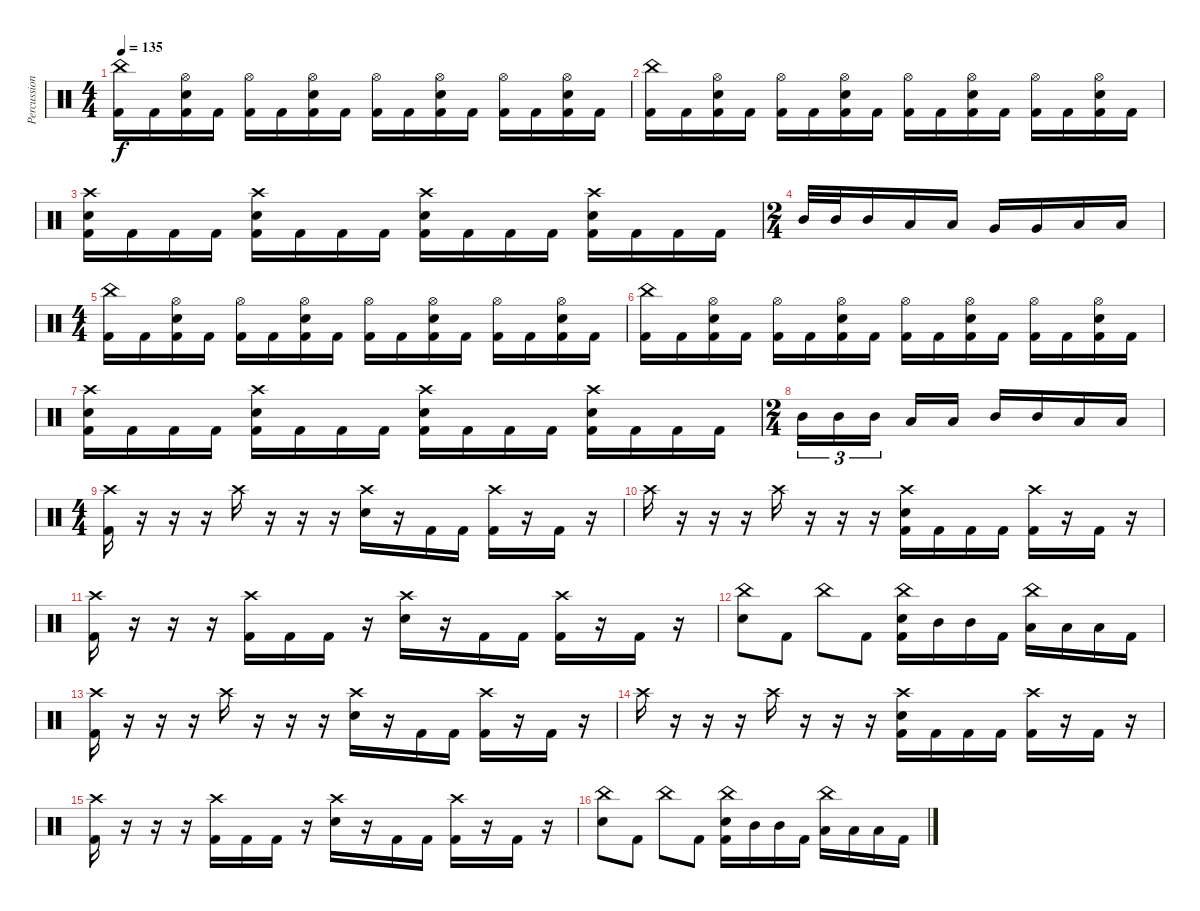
\track ("Percussion" "Percussion") {instrument percussion}
\staff {score}
\articulation defaults
\ts (4 4)
\tempo 135
\clef neutral
\ks c
("China (hit)" "Kick (hit) 2").16{dy f} "Kick (hit) 2".16 ("Hi-Hat (open)" "Electric Snare (hit)" "Kick (hit) 2").16 "Kick (hit) 2".16 ("Hi-Hat (open)" "Kick (hit) 2").16 "Kick (hit) 2".16 ("Hi-Hat (open)" "Electric Snare (hit)" "Kick (hit) 2").16 "Kick (hit) 2".16 ("Hi-Hat (open)" "Kick (hit) 2").16 "Kick (hit) 2".16 ("Hi-Hat (open)" "Electric Snare (hit)" "Kick (hit) 2").16 "Kick (hit) 2".16 ("Hi-Hat (open)" "Kick (hit) 2").16 "Kick (hit) 2".16 ("Hi-Hat (open)" "Electric Snare (hit)" "Kick (hit) 2").16 "Kick (hit) 2".16 |
("China (hit)" "Kick (hit) 2").16 "Kick (hit) 2".16 ("Hi-Hat (open)" "Electric Snare (hit)" "Kick (hit) 2").16 "Kick (hit) 2".16 ("Hi-Hat (open)" "Kick (hit) 2").16 "Kick (hit) 2".16 ("Hi-Hat (open)" "Electric Snare (hit)" "Kick (hit) 2").16 "Kick (hit) 2".16 ("Hi-Hat (open)" "Kick (hit) 2").16 "Kick (hit) 2".16 ("Hi-Hat (open)" "Electric Snare (hit)" "Kick (hit) 2").16 "Kick (hit) 2".16 ("Hi-Hat (open)" "Kick (hit) 2").16 "Kick (hit) 2".16 ("Hi-Hat (open)" "Electric Snare (hit)" "Kick (hit) 2").16 "Kick (hit) 2".16 |
("Crash high (hit)" "Electric Snare (hit)" "Kick (hit) 2").16 "Kick (hit) 2".16 "Kick (hit) 2".16 "Kick (hit) 2".16 ("Crash high (hit)" "Electric Snare (hit)" "Kick (hit) 2").16 "Kick (hit) 2".16 "Kick (hit) 2".16 "Kick (hit) 2".16 ("Crash high (hit)" "Electric Snare (hit)" "Kick (hit) 2").16 "Kick (hit) 2".16 "Kick (hit) 2".16 "Kick (hit) 2".16 ("Crash high (hit)" "Electric Snare (hit)" "Kick (hit) 2").16 "Kick (hit) 2".16 "Kick (hit) 2".16 "Kick (hit) 2".16 |
\ts (2 4)
"Mid Tom (hit)".32 "Mid Tom (hit)".32 "Mid Tom (hit)".16 "Low Tom (hit)".16 "Low Tom (hit)".16 "Very Low Tom (hit)".16 "Very Low Tom (hit)".16 "Low Floor Tom (hit)".16 "Low Floor Tom (hit)".16 |
\ts (4 4)
("China (hit)" "Kick (hit) 2").16 "Kick (hit) 2".16 ("Hi-Hat (open)" "Electric Snare (hit)" "Kick (hit) 2").16 "Kick (hit) 2".16 ("Hi-Hat (open)" "Kick (hit) 2").16 "Kick (hit) 2".16 ("Hi-Hat (open)" "Electric Snare (hit)" "Kick (hit) 2").16 "Kick (hit) 2".16 ("Hi-Hat (open)" "Kick (hit) 2").16 "Kick (hit) 2".16 ("Hi-Hat (open)" "Electric Snare (hit)" "Kick (hit) 2").16 "Kick (hit) 2".16 ("Hi-Hat (open)" "Kick (hit) 2").16 "Kick (hit) 2".16 ("Hi-Hat (open)" "Electric Snare (hit)" "Kick (hit) 2").16 "Kick (hit) 2".16 |
("China (hit)" "Kick (hit) 2").16 "Kick (hit) 2".16 ("Hi-Hat (open)" "Electric Snare (hit)" "Kick (hit) 2").16 "Kick (hit) 2".16 ("Hi-Hat (open)" "Kick (hit) 2").16 "Kick (hit) 2".16 ("Hi-Hat (open)" "Electric Snare (hit)" "Kick (hit) 2").16 "Kick (hit) 2".16 ("Hi-Hat (open)" "Kick (hit) 2").16 "Kick (hit) 2".16 ("Hi-Hat (open)" "Electric Snare (hit)" "Kick (hit) 2").16 "Kick (hit) 2".16 ("Hi-Hat (open)" "Kick (hit) 2").16 "Kick (hit) 2".16 ("Hi-Hat (open)" "Electric Snare (hit)" "Kick (hit) 2").16 "Kick (hit) 2".16 |
("Crash high (hit)" "Electric Snare (hit)" "Kick (hit) 2").16 "Kick (hit) 2".16 "Kick (hit) 2".16 "Kick (hit) 2".16 ("Crash high (hit)" "Electric Snare (hit)" "Kick (hit) 2").16 "Kick (hit) 2".16 "Kick (hit) 2".16 "Kick (hit) 2".16 ("Crash high (hit)" "Electric Snare (hit)" "Kick (hit) 2").16 "Kick (hit) 2".16 "Kick (hit) 2".16 "Kick (hit) 2".16 ("Crash high (hit)" "Electric Snare (hit)" "Kick (hit) 2").16 "Kick (hit) 2".16 "Kick (hit) 2".16 "Kick (hit) 2".16 |
\ts (2 4)
"Mid Tom (hit)".16{tu (3 2)} "Mid Tom (hit)".16{tu (3 2)} "Mid Tom (hit)".16{tu (3 2) beam splitsecondary} "Low Tom (hit)".16 "Low Tom (hit)".16 "Mid Tom (hit)".16 "Mid Tom (hit)".16 "Low Tom (hit)".16 "Low Tom (hit)".16 |
\ts (4 4)
("Crash high (hit)" "Kick (hit) 2").16 r.16 r.16 r.16 "Crash high (hit)".16 r.16 r.16 r.16 ("Crash high (hit)" "Electric Snare (hit)").16 r.16 "Kick (hit) 2".16 "Kick (hit) 2".16 ("Crash high (hit)" "Kick (hit) 2").16 r.16 "Kick (hit) 2".16 r.16 |
"Crash high (hit)".16 r.16 r.16 r.16 "Crash high (hit)".16 r.16 r.16 r.16 ("Crash high (hit)" "Electric Snare (hit)" "Kick (hit) 2").16 "Kick (hit) 2".16 "Kick (hit) 2".16 "Kick (hit) 2".16 ("Crash high (hit)" "Kick (hit) 2").16 r.16 "Kick (hit) 2".16 r.16 |
("Crash high (hit)" "Kick (hit) 2").16 r.16 r.16 r.16 ("Crash high (hit)" "Kick (hit) 2").16 "Kick (hit) 2".16 "Kick (hit) 2".16 r.16 ("Crash high (hit)" "Electric Snare (hit)").16 r.16 "Kick (hit) 2".16 "Kick (hit) 2".16 ("Crash high (hit)" "Kick (hit) 2").16 r.16 "Kick (hit) 2".16 r.16 |
("China (hit)" "Electric Snare (hit)").8 "Kick (hit) 2".8 "China (hit)".8 "Kick (hit) 2".8 ("China (hit)" "Electric Snare (hit)" "Kick (hit) 2").16 "Mid Tom (hit)".16 "Mid Tom (hit)".16 "Kick (hit) 2".16 ("China (hit)" "Low Tom (hit)").16 "Low Tom (hit)".16 "Low Floor Tom (hit)".16 "Kick (hit) 2".16 |
("Crash high (hit)" "Kick (hit) 2").16 r.16 r.16 r.16 "Crash high (hit)".16 r.16 r.16 r.16 ("Crash high (hit)" "Electric Snare (hit)").16 r.16 "Kick (hit) 2".16 "Kick (hit) 2".16 ("Crash high (hit)" "Kick (hit) 2").16 r.16 "Kick (hit) 2".16 r.16 |
"Crash high (hit)".16 r.16 r.16 r.16 "Crash high (hit)".16 r.16 r.16 r.16 ("Crash high (hit)" "Electric Snare (hit)" "Kick (hit) 2").16 "Kick (hit) 2".16 "Kick (hit) 2".16 "Kick (hit) 2".16 ("Crash high (hit)" "Kick (hit) 2").16 r.16 "Kick (hit) 2".16 r.16 |
("Crash high (hit)" "Kick (hit) 2").16 r.16 r.16 r.16 ("Crash high (hit)" "Kick (hit) 2").16 "Kick (hit) 2".16 "Kick (hit) 2".16 r.16 ("Crash high (hit)" "Electric Snare (hit)").16 r.16 "Kick (hit) 2".16 "Kick (hit) 2".16 ("Crash high (hit)" "Kick (hit) 2").16 r.16 "Kick (hit) 2".16 r.16 |
("China (hit)" "Electric Snare (hit)").8 "Kick (hit) 2".8 "China (hit)".8 "Kick (hit) 2".8 ("China (hit)" "Electric Snare (hit)" "Kick (hit) 2").16 "Mid Tom (hit)".16 "Mid Tom (hit)".16 "Kick (hit) 2".16 ("China (hit)" "Low Tom (hit)").16 "Low Tom (hit)".16 "Low Floor Tom (hit)".16 "Kick (hit) 2".16
